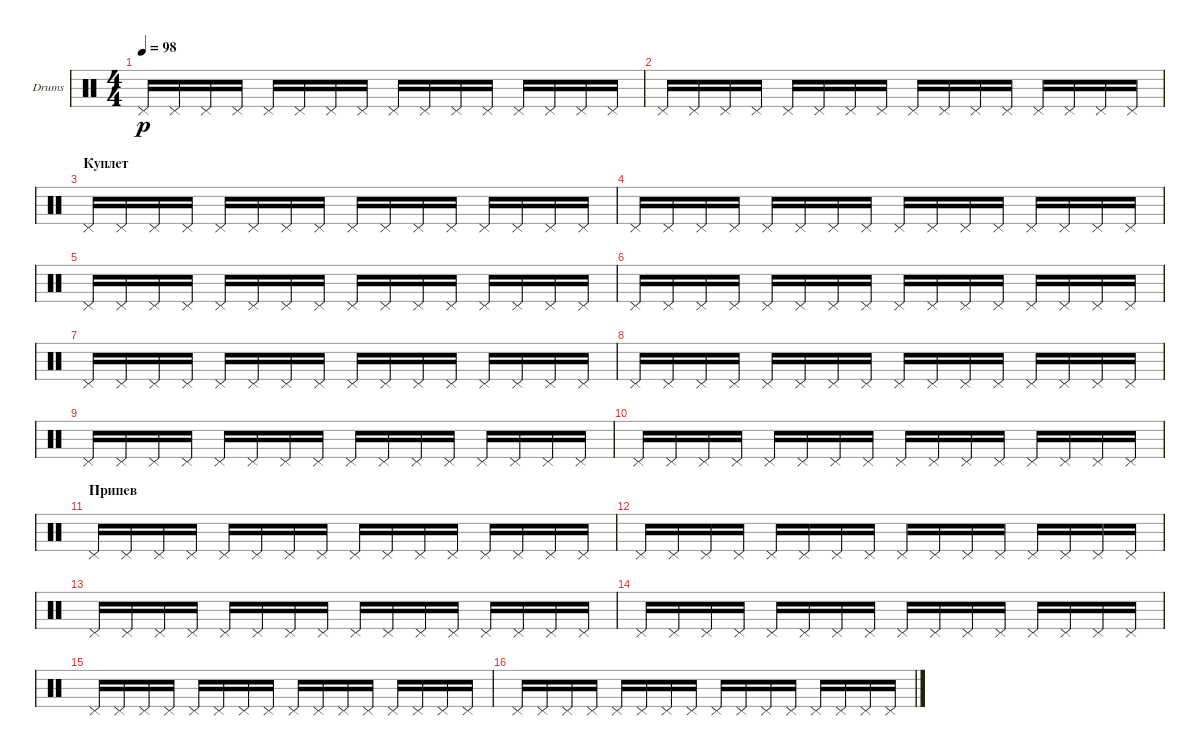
\defaultSystemsLayout 4
\bracketExtendMode groupsimilarinstruments
\firstSystemTrackNameOrientation horizontal
\otherSystemsTrackNameOrientation horizontal
\track ("Е. Кулаков" "Drums") {instrument percussion}
\staff {score}
\articulation defaults
\ts (4 4)
\tempo 98
\clef neutral
\scale
0.333333
\ks c "Pedal Hi-Hat (hit)".16{dy p} "Pedal Hi-Hat (hit)".16 "Pedal Hi-Hat (hit)".16 "Pedal Hi-Hat (hit)".16 "Pedal Hi-Hat (hit)".16 "Pedal Hi-Hat (hit)".16 "Pedal Hi-Hat (hit)".16 "Pedal Hi-Hat (hit)".16 "Pedal Hi-Hat (hit)".16 "Pedal Hi-Hat (hit)".16 "Pedal Hi-Hat (hit)".16 "Pedal Hi-Hat (hit)".16 "Pedal Hi-Hat (hit)".16 "Pedal Hi-Hat (hit)".16 "Pedal Hi-Hat (hit)".16 "Pedal Hi-Hat (hit)".16
|
\scale
0.333333 "Pedal Hi-Hat (hit)".16 "Pedal Hi-Hat (hit)".16 "Pedal Hi-Hat (hit)".16 "Pedal Hi-Hat (hit)".16 "Pedal Hi-Hat (hit)".16 "Pedal Hi-Hat (hit)".16 "Pedal Hi-Hat (hit)".16 "Pedal Hi-Hat (hit)".16 "Pedal Hi-Hat (hit)".16 "Pedal Hi-Hat (hit)".16 "Pedal Hi-Hat (hit)".16 "Pedal Hi-Hat (hit)".16 "Pedal Hi-Hat (hit)".16 "Pedal Hi-Hat (hit)".16 "Pedal Hi-Hat (hit)".16 "Pedal Hi-Hat (hit)".16 |
\section ("" "Куплет")
\scale
0.333333 "Pedal Hi-Hat (hit)".16 "Pedal Hi-Hat (hit)".16 "Pedal Hi-Hat (hit)".16 "Pedal Hi-Hat (hit)".16 "Pedal Hi-Hat (hit)".16 "Pedal Hi-Hat (hit)".16 "Pedal Hi-Hat (hit)".16 "Pedal Hi-Hat (hit)".16 "Pedal Hi-Hat (hit)".16 "Pedal Hi-Hat (hit)".16 "Pedal Hi-Hat (hit)".16 "Pedal Hi-Hat (hit)".16 "Pedal Hi-Hat (hit)".16 "Pedal Hi-Hat (hit)".16 "Pedal Hi-Hat (hit)".16 "Pedal Hi-Hat (hit)".16 |
\scale
0.333333 "Pedal Hi-Hat (hit)".16 "Pedal Hi-Hat (hit)".16 "Pedal Hi-Hat (hit)".16 "Pedal Hi-Hat (hit)".16 "Pedal Hi-Hat (hit)".16 "Pedal Hi-Hat (hit)".16 "Pedal Hi-Hat (hit)".16 "Pedal Hi-Hat (hit)".16 "Pedal Hi-Hat (hit)".16 "Pedal Hi-Hat (hit)".16 "Pedal Hi-Hat (hit)".16 "Pedal Hi-Hat (hit)".16 "Pedal Hi-Hat (hit)".16 "Pedal Hi-Hat (hit)".16 "Pedal Hi-Hat (hit)".16 "Pedal Hi-Hat (hit)".16 |
\scale
0.333333 "Pedal Hi-Hat (hit)".16 "Pedal Hi-Hat (hit)".16 "Pedal Hi-Hat (hit)".16 "Pedal Hi-Hat (hit)".16 "Pedal Hi-Hat (hit)".16 "Pedal Hi-Hat (hit)".16 "Pedal Hi-Hat (hit)".16 "Pedal Hi-Hat (hit)".16 "Pedal Hi-Hat (hit)".16 "Pedal Hi-Hat (hit)".16 "Pedal Hi-Hat (hit)".16 "Pedal Hi-Hat (hit)".16 "Pedal Hi-Hat (hit)".16 "Pedal Hi-Hat (hit)".16 "Pedal Hi-Hat (hit)".16 "Pedal Hi-Hat (hit)".16 |
\scale
0.333333 "Pedal Hi-Hat (hit)".16 "Pedal Hi-Hat (hit)".16 "Pedal Hi-Hat (hit)".16 "Pedal Hi-Hat (hit)".16 "Pedal Hi-Hat (hit)".16 "Pedal Hi-Hat (hit)".16 "Pedal Hi-Hat (hit)".16 "Pedal Hi-Hat (hit)".16 "Pedal Hi-Hat (hit)".16 "Pedal Hi-Hat (hit)".16 "Pedal Hi-Hat (hit)".16 "Pedal Hi-Hat (hit)".16 "Pedal Hi-Hat (hit)".16 "Pedal Hi-Hat (hit)".16 "Pedal Hi-Hat (hit)".16 "Pedal Hi-Hat (hit)".16 |
\scale
0.333333 "Pedal Hi-Hat (hit)".16 "Pedal Hi-Hat (hit)".16 "Pedal Hi-Hat (hit)".16 "Pedal Hi-Hat (hit)".16 "Pedal Hi-Hat (hit)".16 "Pedal Hi-Hat (hit)".16 "Pedal Hi-Hat (hit)".16 "Pedal Hi-Hat (hit)".16 "Pedal Hi-Hat (hit)".16 "Pedal Hi-Hat (hit)".16 "Pedal Hi-Hat (hit)".16 "Pedal Hi-Hat (hit)".16 "Pedal Hi-Hat (hit)".16 "Pedal Hi-Hat (hit)".16 "Pedal Hi-Hat (hit)".16 "Pedal Hi-Hat (hit)".16 |
\scale
0.333333 "Pedal Hi-Hat (hit)".16 "Pedal Hi-Hat (hit)".16 "Pedal Hi-Hat (hit)".16 "Pedal Hi-Hat (hit)".16 "Pedal Hi-Hat (hit)".16 "Pedal Hi-Hat (hit)".16 "Pedal Hi-Hat (hit)".16 "Pedal Hi-Hat (hit)".16 "Pedal Hi-Hat (hit)".16 "Pedal Hi-Hat (hit)".16 "Pedal Hi-Hat (hit)".16 "Pedal Hi-Hat (hit)".16 "Pedal Hi-Hat (hit)".16 "Pedal Hi-Hat (hit)".16 "Pedal Hi-Hat (hit)".16 "Pedal Hi-Hat (hit)".16 |
"Pedal Hi-Hat (hit)".16 "Pedal Hi-Hat (hit)".16 "Pedal Hi-Hat (hit)".16 "Pedal Hi-Hat (hit)".16 "Pedal Hi-Hat (hit)".16 "Pedal Hi-Hat (hit)".16 "Pedal Hi-Hat (hit)".16 "Pedal Hi-Hat (hit)".16 "Pedal Hi-Hat (hit)".16 "Pedal Hi-Hat (hit)".16 "Pedal Hi-Hat (hit)".16 "Pedal Hi-Hat (hit)".16 "Pedal Hi-Hat (hit)".16 "Pedal Hi-Hat (hit)".16 "Pedal Hi-Hat (hit)".16 "Pedal Hi-Hat (hit)".16 |
"Pedal Hi-Hat (hit)".16 "Pedal Hi-Hat (hit)".16 "Pedal Hi-Hat (hit)".16 "Pedal Hi-Hat (hit)".16 "Pedal Hi-Hat (hit)".16 "Pedal Hi-Hat (hit)".16 "Pedal Hi-Hat (hit)".16 "Pedal Hi-Hat (hit)".16 "Pedal Hi-Hat (hit)".16 "Pedal Hi-Hat (hit)".16 "Pedal Hi-Hat (hit)".16 "Pedal Hi-Hat (hit)".16 "Pedal Hi-Hat (hit)".16 "Pedal Hi-Hat (hit)".16 "Pedal Hi-Hat (hit)".16 "Pedal Hi-Hat (hit)".16 |
\section ("" "Припев")
"Pedal Hi-Hat (hit)".16 "Pedal Hi-Hat (hit)".16 "Pedal Hi-Hat (hit)".16 "Pedal Hi-Hat (hit)".16 "Pedal Hi-Hat (hit)".16 "Pedal Hi-Hat (hit)".16 "Pedal Hi-Hat (hit)".16 "Pedal Hi-Hat (hit)".16 "Pedal Hi-Hat (hit)".16 "Pedal Hi-Hat (hit)".16 "Pedal Hi-Hat (hit)".16 "Pedal Hi-Hat (hit)".16 "Pedal Hi-Hat (hit)".16 "Pedal Hi-Hat (hit)".16 "Pedal Hi-Hat (hit)".16 "Pedal Hi-Hat (hit)".16 |
"Pedal Hi-Hat (hit)".16 "Pedal Hi-Hat (hit)".16 "Pedal Hi-Hat (hit)".16 "Pedal Hi-Hat (hit)".16 "Pedal Hi-Hat (hit)".16 "Pedal Hi-Hat (hit)".16 "Pedal Hi-Hat (hit)".16 "Pedal Hi-Hat (hit)".16 "Pedal Hi-Hat (hit)".16 "Pedal Hi-Hat (hit)".16 "Pedal Hi-Hat (hit)".16 "Pedal Hi-Hat (hit)".16 "Pedal Hi-Hat (hit)".16 "Pedal Hi-Hat (hit)".16 "Pedal Hi-Hat (hit)".16 "Pedal Hi-Hat (hit)".16 |
"Pedal Hi-Hat (hit)".16 "Pedal Hi-Hat (hit)".16 "Pedal Hi-Hat (hit)".16 "Pedal Hi-Hat (hit)".16 "Pedal Hi-Hat (hit)".16 "Pedal Hi-Hat (hit)".16 "Pedal Hi-Hat (hit)".16 "Pedal Hi-Hat (hit)".16 "Pedal Hi-Hat (hit)".16 "Pedal Hi-Hat (hit)".16 "Pedal Hi-Hat (hit)".16 "Pedal Hi-Hat (hit)".16 "Pedal Hi-Hat (hit)".16 "Pedal Hi-Hat (hit)".16 "Pedal Hi-Hat (hit)".16 "Pedal Hi-Hat (hit)".16 |
"Pedal Hi-Hat (hit)".16 "Pedal Hi-Hat (hit)".16 "Pedal Hi-Hat (hit)".16 "Pedal Hi-Hat (hit)".16 "Pedal Hi-Hat (hit)".16 "Pedal Hi-Hat (hit)".16 "Pedal Hi-Hat (hit)".16 "Pedal Hi-Hat (hit)".16 "Pedal Hi-Hat (hit)".16 "Pedal Hi-Hat (hit)".16 "Pedal Hi-Hat (hit)".16 "Pedal Hi-Hat (hit)".16 "Pedal Hi-Hat (hit)".16 "Pedal Hi-Hat (hit)".16 "Pedal Hi-Hat (hit)".16 "Pedal Hi-Hat (hit)".16 |
"Pedal Hi-Hat (hit)".16 "Pedal Hi-Hat (hit)".16 "Pedal Hi-Hat (hit)".16 "Pedal Hi-Hat (hit)".16 "Pedal Hi-Hat (hit)".16 "Pedal Hi-Hat (hit)".16 "Pedal Hi-Hat (hit)".16 "Pedal Hi-Hat (hit)".16 "Pedal Hi-Hat (hit)".16 "Pedal Hi-Hat (hit)".16 "Pedal Hi-Hat (hit)".16 "Pedal Hi-Hat (hit)".16 "Pedal Hi-Hat (hit)".16 "Pedal Hi-Hat (hit)".16 "Pedal Hi-Hat (hit)".16 "Pedal Hi-Hat (hit)".16 |
"Pedal Hi-Hat (hit)".16 "Pedal Hi-Hat (hit)".16 "Pedal Hi-Hat (hit)".16 "Pedal Hi-Hat (hit)".16 "Pedal Hi-Hat (hit)".16 "Pedal Hi-Hat (hit)".16 "Pedal Hi-Hat (hit)".16 "Pedal Hi-Hat (hit)".16 "Pedal Hi-Hat (hit)".16 "Pedal Hi-Hat (hit)".16 "Pedal Hi-Hat (hit)".16 "Pedal Hi-Hat (hit)".16 "Pedal Hi-Hat (hit)".16 "Pedal Hi-Hat (hit)".16 "Pedal Hi-Hat (hit)".16 "Pedal Hi-Hat (hit)".16
